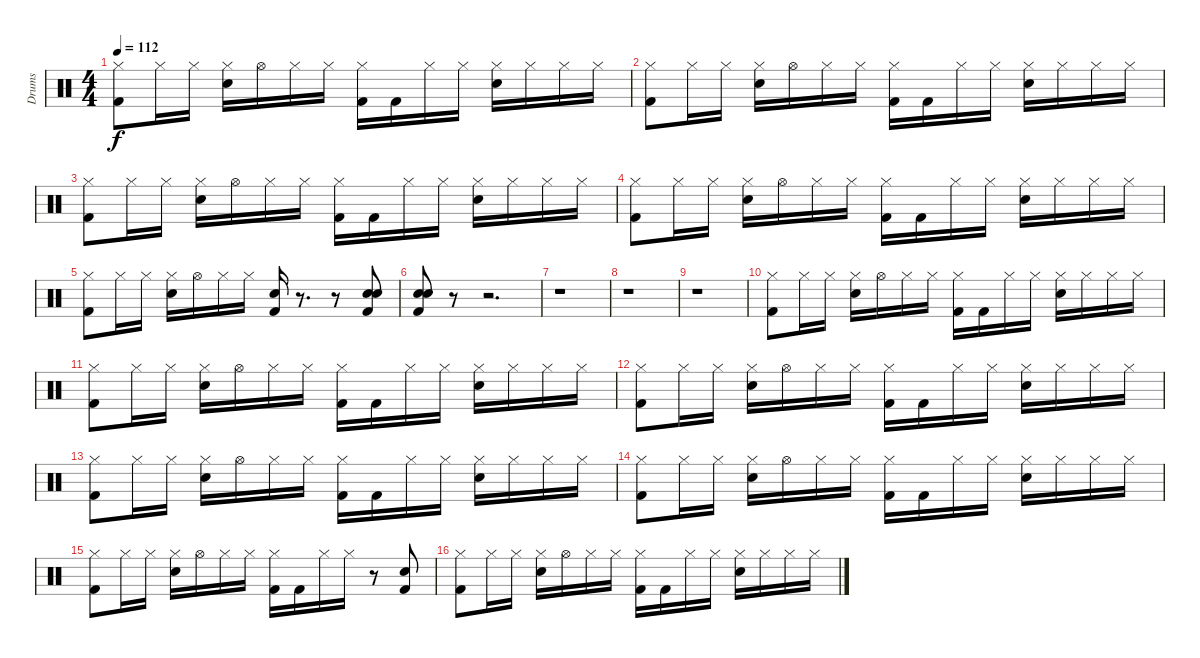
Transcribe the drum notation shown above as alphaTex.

\track ("Drums" "Drums") {instrument percussion}
\staff {score}
\articulation defaults
\ts (4 4)
\tempo 112
\clef neutral
\ks c
("Hi-Hat (closed)" "Kick (hit) 2").8{dy f} "Hi-Hat (closed)".16 "Hi-Hat (closed)".16 ("Hi-Hat (closed)" "Electric Snare (hit)").16 "Hi-Hat (open)".16 "Hi-Hat (closed)".16 "Hi-Hat (closed)".16 ("Hi-Hat (closed)" "Kick (hit) 2").16 "Kick (hit) 2".16 "Hi-Hat (closed)".16 "Hi-Hat (closed)".16 ("Hi-Hat (closed)" "Electric Snare (hit)").16 "Hi-Hat (closed)".16 "Hi-Hat (closed)".16 "Hi-Hat (closed)".16 |
("Hi-Hat (closed)" "Kick (hit) 2").8 "Hi-Hat (closed)".16 "Hi-Hat (closed)".16 ("Hi-Hat (closed)" "Electric Snare (hit)").16 "Hi-Hat (open)".16 "Hi-Hat (closed)".16 "Hi-Hat (closed)".16 ("Hi-Hat (closed)" "Kick (hit) 2").16 "Kick (hit) 2".16 "Hi-Hat (closed)".16 "Hi-Hat (closed)".16 ("Hi-Hat (closed)" "Electric Snare (hit)").16 "Hi-Hat (closed)".16 "Hi-Hat (closed)".16 "Hi-Hat (closed)".16 |
("Hi-Hat (closed)" "Kick (hit) 2").8 "Hi-Hat (closed)".16 "Hi-Hat (closed)".16 ("Hi-Hat (closed)" "Electric Snare (hit)").16 "Hi-Hat (open)".16 "Hi-Hat (closed)".16 "Hi-Hat (closed)".16 ("Hi-Hat (closed)" "Kick (hit) 2").16 "Kick (hit) 2".16 "Hi-Hat (closed)".16 "Hi-Hat (closed)".16 ("Hi-Hat (closed)" "Electric Snare (hit)").16 "Hi-Hat (closed)".16 "Hi-Hat (closed)".16 "Hi-Hat (closed)".16 |
("Hi-Hat (closed)" "Kick (hit) 2").8 "Hi-Hat (closed)".16 "Hi-Hat (closed)".16 ("Hi-Hat (closed)" "Electric Snare (hit)").16 "Hi-Hat (open)".16 "Hi-Hat (closed)".16 "Hi-Hat (closed)".16 ("Hi-Hat (closed)" "Kick (hit) 2").16 "Kick (hit) 2".16 "Hi-Hat (closed)".16 "Hi-Hat (closed)".16 ("Hi-Hat (closed)" "Electric Snare (hit)").16 "Hi-Hat (closed)".16 "Hi-Hat (closed)".16 "Hi-Hat (closed)".16 |
("Hi-Hat (closed)" "Kick (hit) 2").8 "Hi-Hat (closed)".16 "Hi-Hat (closed)".16 ("Hi-Hat (closed)" "Electric Snare (hit)").16 "Hi-Hat (open)".16 "Hi-Hat (closed)".16 "Hi-Hat (closed)".16 ("Electric Snare (hit)" "Kick (hit) 2").16 r.8{d} r.8 ("Electric Snare (hit)" "Electric Snare (hit)" "Kick (hit) 2").8 |
("Electric Snare (hit)" "Electric Snare (hit)" "Kick (hit) 2").8 r.8 r.2{d} |
r.1 |
r.1 |
r.1 |
("Hi-Hat (closed)" "Kick (hit) 2").8 "Hi-Hat (closed)".16 "Hi-Hat (closed)".16 ("Hi-Hat (closed)" "Electric Snare (hit)").16 "Hi-Hat (open)".16 "Hi-Hat (closed)".16 "Hi-Hat (closed)".16 ("Hi-Hat (closed)" "Kick (hit) 2").16 "Kick (hit) 2".16 "Hi-Hat (closed)".16 "Hi-Hat (closed)".16 ("Hi-Hat (closed)" "Electric Snare (hit)").16 "Hi-Hat (closed)".16 "Hi-Hat (closed)".16 "Hi-Hat (closed)".16 |
("Hi-Hat (closed)" "Kick (hit) 2").8 "Hi-Hat (closed)".16 "Hi-Hat (closed)".16 ("Hi-Hat (closed)" "Electric Snare (hit)").16 "Hi-Hat (open)".16 "Hi-Hat (closed)".16 "Hi-Hat (closed)".16 ("Hi-Hat (closed)" "Kick (hit) 2").16 "Kick (hit) 2".16 "Hi-Hat (closed)".16 "Hi-Hat (closed)".16 ("Hi-Hat (closed)" "Electric Snare (hit)").16 "Hi-Hat (closed)".16 "Hi-Hat (closed)".16 "Hi-Hat (closed)".16 |
("Hi-Hat (closed)" "Kick (hit) 2").8 "Hi-Hat (closed)".16 "Hi-Hat (closed)".16 ("Hi-Hat (closed)" "Electric Snare (hit)").16 "Hi-Hat (open)".16 "Hi-Hat (closed)".16 "Hi-Hat (closed)".16 ("Hi-Hat (closed)" "Kick (hit) 2").16 "Kick (hit) 2".16 "Hi-Hat (closed)".16 "Hi-Hat (closed)".16 ("Hi-Hat (closed)" "Electric Snare (hit)").16 "Hi-Hat (closed)".16 "Hi-Hat (closed)".16 "Hi-Hat (closed)".16 |
("Hi-Hat (closed)" "Kick (hit) 2").8 "Hi-Hat (closed)".16 "Hi-Hat (closed)".16 ("Hi-Hat (closed)" "Electric Snare (hit)").16 "Hi-Hat (open)".16 "Hi-Hat (closed)".16 "Hi-Hat (closed)".16 ("Hi-Hat (closed)" "Kick (hit) 2").16 "Kick (hit) 2".16 "Hi-Hat (closed)".16 "Hi-Hat (closed)".16 ("Hi-Hat (closed)" "Electric Snare (hit)").16 "Hi-Hat (closed)".16 "Hi-Hat (closed)".16 "Hi-Hat (closed)".16 |
("Hi-Hat (closed)" "Kick (hit) 2").8 "Hi-Hat (closed)".16 "Hi-Hat (closed)".16 ("Hi-Hat (closed)" "Electric Snare (hit)").16 "Hi-Hat (open)".16 "Hi-Hat (closed)".16 "Hi-Hat (closed)".16 ("Hi-Hat (closed)" "Kick (hit) 2").16 "Kick (hit) 2".16 "Hi-Hat (closed)".16 "Hi-Hat (closed)".16 ("Hi-Hat (closed)" "Electric Snare (hit)").16 "Hi-Hat (closed)".16 "Hi-Hat (closed)".16 "Hi-Hat (closed)".16 |
("Hi-Hat (closed)" "Kick (hit) 2").8 "Hi-Hat (closed)".16 "Hi-Hat (closed)".16 ("Hi-Hat (closed)" "Electric Snare (hit)").16 "Hi-Hat (open)".16 "Hi-Hat (closed)".16 "Hi-Hat (closed)".16 ("Hi-Hat (closed)" "Kick (hit) 2").16 "Kick (hit) 2".16 "Hi-Hat (closed)".16 "Hi-Hat (closed)".16 r.8 ("Electric Snare (hit)" "Kick (hit) 2").8 |
("Hi-Hat (closed)" "Kick (hit) 2").8 "Hi-Hat (closed)".16 "Hi-Hat (closed)".16 ("Hi-Hat (closed)" "Electric Snare (hit)").16 "Hi-Hat (open)".16 "Hi-Hat (closed)".16 "Hi-Hat (closed)".16 ("Hi-Hat (closed)" "Kick (hit) 2").16 "Kick (hit) 2".16 "Hi-Hat (closed)".16 "Hi-Hat (closed)".16 ("Hi-Hat (closed)" "Electric Snare (hit)").16 "Hi-Hat (closed)".16 "Hi-Hat (closed)".16 "Hi-Hat (closed)".16
